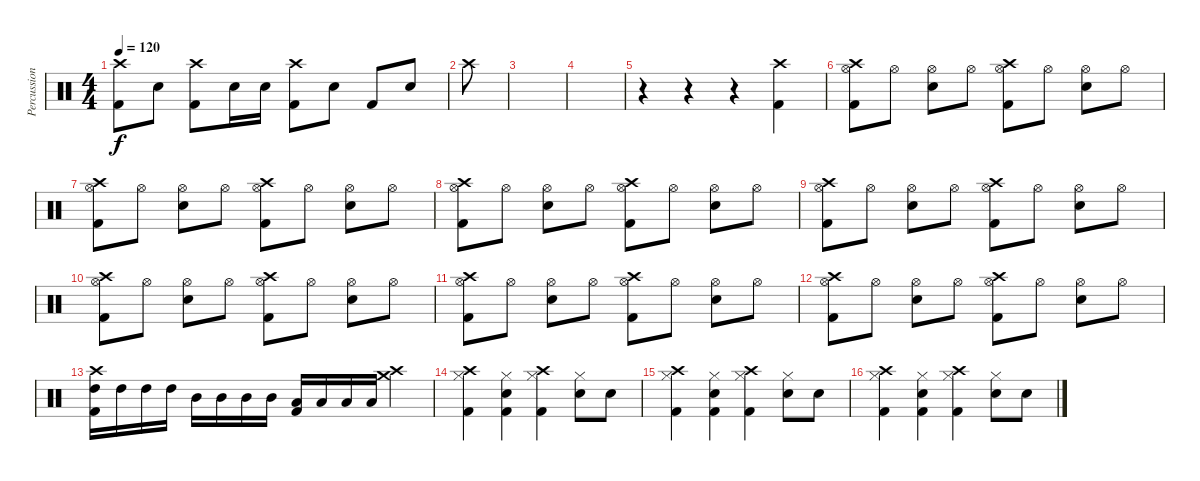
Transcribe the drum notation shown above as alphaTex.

\track ("Percussion" "Percussion") {instrument percussion}
\staff {score}
\articulation defaults
\ts (4 4)
\tempo 120
\clef neutral
\ks c
("Crash high (hit)" "Kick (hit) 2").8{dy f} "Snare (hit) 2".8 ("Crash high (hit)" "Kick (hit) 2").8 "Snare (hit) 2".16 "Snare (hit) 2".16 ("Crash high (hit)" "Kick (hit) 2").8 "Snare (hit) 2".8 "Kick (hit) 2".8 "Snare (hit) 2".8 |
"Crash high (hit)".8 |
|
|
r.4 r.4 r.4 ("Crash high (hit)" "Kick (hit) 2").4 |
("Crash high (hit)" "Hi-Hat (open)" "Kick (hit) 2").8 "Hi-Hat (open)".8 ("Hi-Hat (open)" "Snare (hit) 2").8 "Hi-Hat (open)".8 ("Crash high (hit)" "Hi-Hat (open)" "Kick (hit) 2").8 "Hi-Hat (open)".8 ("Hi-Hat (open)" "Snare (hit) 2").8 "Hi-Hat (open)".8 |
("Crash high (hit)" "Hi-Hat (open)" "Kick (hit) 2").8 "Hi-Hat (open)".8 ("Hi-Hat (open)" "Snare (hit) 2").8 "Hi-Hat (open)".8 ("Crash high (hit)" "Hi-Hat (open)" "Kick (hit) 2").8 "Hi-Hat (open)".8 ("Hi-Hat (open)" "Snare (hit) 2").8 "Hi-Hat (open)".8 |
("Crash high (hit)" "Hi-Hat (open)" "Kick (hit) 2").8 "Hi-Hat (open)".8 ("Hi-Hat (open)" "Snare (hit) 2").8 "Hi-Hat (open)".8 ("Crash high (hit)" "Hi-Hat (open)" "Kick (hit) 2").8 "Hi-Hat (open)".8 ("Hi-Hat (open)" "Snare (hit) 2").8 "Hi-Hat (open)".8 |
("Crash high (hit)" "Hi-Hat (open)" "Kick (hit) 2").8 "Hi-Hat (open)".8 ("Hi-Hat (open)" "Snare (hit) 2").8 "Hi-Hat (open)".8 ("Crash high (hit)" "Hi-Hat (open)" "Kick (hit) 2").8 "Hi-Hat (open)".8 ("Hi-Hat (open)" "Snare (hit) 2").8 "Hi-Hat (open)".8 |
("Crash high (hit)" "Hi-Hat (open)" "Kick (hit) 2").8 "Hi-Hat (open)".8 ("Hi-Hat (open)" "Snare (hit) 2").8 "Hi-Hat (open)".8 ("Crash high (hit)" "Hi-Hat (open)" "Kick (hit) 2").8 "Hi-Hat (open)".8 ("Hi-Hat (open)" "Snare (hit) 2").8 "Hi-Hat (open)".8 |
("Crash high (hit)" "Hi-Hat (open)" "Kick (hit) 2").8 "Hi-Hat (open)".8 ("Hi-Hat (open)" "Snare (hit) 2").8 "Hi-Hat (open)".8 ("Crash high (hit)" "Hi-Hat (open)" "Kick (hit) 2").8 "Hi-Hat (open)".8 ("Hi-Hat (open)" "Snare (hit) 2").8 "Hi-Hat (open)".8 |
("Crash high (hit)" "Hi-Hat (open)" "Kick (hit) 2").8 "Hi-Hat (open)".8 ("Hi-Hat (open)" "Snare (hit) 2").8 "Hi-Hat (open)".8 ("Crash high (hit)" "Hi-Hat (open)" "Kick (hit) 2").8 "Hi-Hat (open)".8 ("Hi-Hat (open)" "Snare (hit) 2").8 "Hi-Hat (open)".8 |
("Crash high (hit)" "High Tom (hit)" "Kick (hit) 2").16 "High Tom (hit)".16 "High Tom (hit)".16 "High Tom (hit)".16 "Mid Tom (hit)".16 "Mid Tom (hit)".16 "Mid Tom (hit)".16 "Mid Tom (hit)".16 ("Low Tom (hit)" "Kick (hit) 2").16 "Low Tom (hit)".16 "Low Tom (hit)".16 "Low Tom (hit)".16 ("Crash high (hit)" "Crash medium (hit)").4 |
("Crash high (hit)" "Hi-Hat (closed)" "Kick (hit) 2").4 ("Hi-Hat (closed)" "Snare (hit) 2" "Kick (hit) 2").4 ("Crash high (hit)" "Hi-Hat (closed)" "Kick (hit) 2").4 ("Hi-Hat (closed)" "Snare (hit) 2").8 "Snare (hit) 2".8 |
("Crash high (hit)" "Hi-Hat (closed)" "Kick (hit) 2").4 ("Hi-Hat (closed)" "Snare (hit) 2" "Kick (hit) 2").4 ("Crash high (hit)" "Hi-Hat (closed)" "Kick (hit) 2").4 ("Hi-Hat (closed)" "Snare (hit) 2").8 "Snare (hit) 2".8 |
("Crash high (hit)" "Hi-Hat (closed)" "Kick (hit) 2").4 ("Hi-Hat (closed)" "Snare (hit) 2" "Kick (hit) 2").4 ("Crash high (hit)" "Hi-Hat (closed)" "Kick (hit) 2").4 ("Hi-Hat (closed)" "Snare (hit) 2").8 "Snare (hit) 2".8
